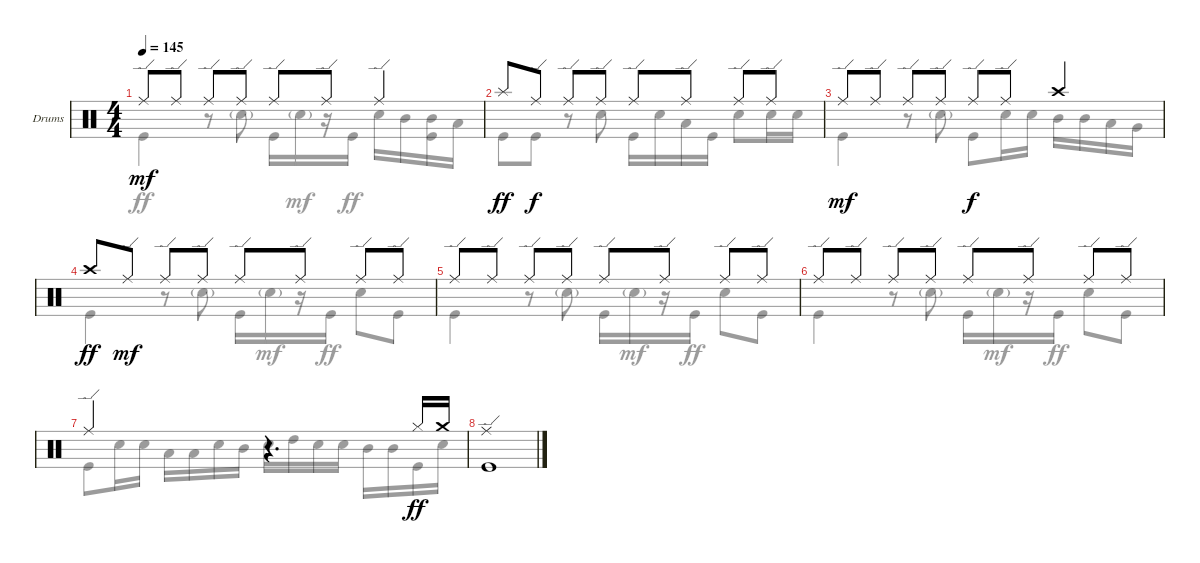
\defaultSystemsLayout 4
\bracketExtendMode groupsimilarinstruments
\firstSystemTrackNameOrientation horizontal
\otherSystemsTrackNameOrientation horizontal
\track ("Drumkit" "Drums") {instrument percussion}
\staff {score}
\articulation defaults
\voice
\ts (4 4)
\tempo 145
\clef neutral
\ks c "Ride (edge)".8{dy mf} "Ride (edge)".8 "Ride (edge)".8 "Ride (edge)".8 "Ride (edge)".8 "Ride (edge)".8 "Ride (edge)".4
|
"Splash (hit)".8{dy ff} "Ride (edge)".8{dy f} "Ride (edge)".8 "Ride (edge)".8 "Ride (edge)".8 "Ride (edge)".8 "Ride (edge)".8 "Ride (edge)".8 |
"Ride (edge)".8{dy mf} "Ride (edge)".8 "Ride (edge)".8 "Ride (edge)".8 "Ride (edge)".8{dy f} "Ride (edge)".8 "Crash high (hit)".4 |
"Crash high (hit)".8{dy ff} "Ride (edge)".8{dy mf} "Ride (edge)".8 "Ride (edge)".8 "Ride (edge)".8 "Ride (edge)".8 "Ride (edge)".8 "Ride (edge)".8 |
"Ride (edge)".8 "Ride (edge)".8 "Ride (edge)".8 "Ride (edge)".8 "Ride (edge)".8 "Ride (edge)".8 "Ride (edge)".8 "Ride (edge)".8 |
"Ride (edge)".8 "Ride (edge)".8 "Ride (edge)".8 "Ride (edge)".8 "Ride (edge)".8 "Ride (edge)".8 "Ride (edge)".8 "Ride (edge)".8 |
"Ride (edge)".2 r.4{d} "Hi-Hat (closed)".16{dy ff} "Crash medium (hit)".16 |
("Kick (hit)" "Ride (edge)").1 |
|
|
|
|
|
|
|
\voice
\clef neutral
\ottava regular
\simile none
\ks c "Kick (hit)".4{dy ff}
r.8 "Snare (hit) 2"{g}.8 "Kick (hit)".16 "Snare (hit) 2"{g}.16{dy mf} r.16 "Kick (hit)".16{dy ff} "Snare (hit) 2".16 "Mid Tom (hit)".16 ("Mid Tom (hit)" "Kick (hit)").16 "Low Tom (hit)".16 |
"Kick (hit)".8 "Kick (hit)".8 r.8 "Snare (hit) 2".8 "Kick (hit)".16 "Snare (hit) 2".16 "Low Tom (hit)".16 "Kick (hit)".16 "Snare (hit) 2".8 "Snare (hit) 2".16 "Snare (hit) 2".16 |
"Kick (hit)".4 r.8 "Snare (hit) 2"{g}.8 "Kick (hit)".8 "Snare (hit) 2".16 "Snare (hit) 2".16 "Mid Tom (hit)".16 "Mid Tom (hit)".16 "Low Tom (hit)".16 "Very Low Tom (hit)".16 |
"Kick (hit)".4 r.8 "Snare (hit) 2"{g}.8 "Kick (hit)".16 "Snare (hit) 2"{g}.16{dy mf} r.16 "Kick (hit)".16{dy ff} "Snare (hit) 2".8 "Kick (hit)".8 |
"Kick (hit)".4 r.8 "Snare (hit) 2"{g}.8 "Kick (hit)".16 "Snare (hit) 2"{g}.16{dy mf} r.16 "Kick (hit)".16{dy ff} "Snare (hit) 2".8 "Kick (hit)".8 |
"Kick (hit)".4 r.8 "Snare (hit) 2"{g}.8 "Kick (hit)".16 "Snare (hit) 2"{g}.16{dy mf} r.16 "Kick (hit)".16{dy ff} "Snare (hit) 2".8 "Kick (hit)".8 |
"Kick (hit)".8 "Snare (hit) 2".16 "Snare (hit) 2".16 "Low Tom (hit)".16 "Low Tom (hit)".16 "Snare (hit) 2".16 "Mid Tom (hit)".16 "Snare (hit) 2".16 "High Tom (hit)".16 "Snare (hit) 2".16 "Snare (hit) 2".16 "Mid Tom (hit)".16 "Mid Tom (hit)".16 "Kick (hit)".16 "Snare (hit) 2".16 |
|
|
|
|
|
|
|
|
